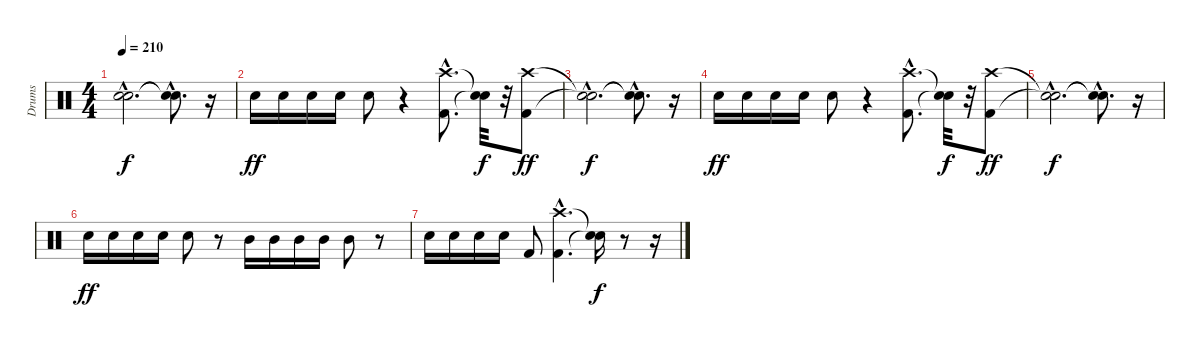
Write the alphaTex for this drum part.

\track ("Drums" "Drums") {instrument percussion}
\staff {score}
\articulation defaults
\ts (4 4)
\tempo 210
\clef neutral
\ks c
("Snare (hit)"{hac t} "Snare (hit)"{hac t}).2{d dy f} ("Snare (hit)"{hac t} "Snare (hit)"{hac t}).8{d} r.16 |
"Snare (hit) 2".16{dy ff} "Snare (hit) 2".16 "Snare (hit) 2".16 "Snare (hit) 2".16 "Snare (hit) 2".8 r.4 ("Kick (hit) 2"{hac} "Crash high (hit)"{hac}).8{d} ("Snare (hit)"{t} "Snare (hit)"{t}).32{dy f} r.32 ("Kick (hit) 2" "Crash high (hit)").8{dy ff} |
("Snare (hit)"{hac t} "Snare (hit)"{hac t}).2{d dy f} ("Snare (hit)"{hac t} "Snare (hit)"{hac t}).8{d} r.16 |
"Snare (hit) 2".16{dy ff} "Snare (hit) 2".16 "Snare (hit) 2".16 "Snare (hit) 2".16 "Snare (hit) 2".8 r.4 ("Kick (hit) 2"{hac} "Crash high (hit)"{hac}).8{d} ("Snare (hit)"{t} "Snare (hit)"{t}).32{dy f} r.32 ("Kick (hit) 2" "Crash high (hit)").8{dy ff} |
("Snare (hit)"{hac t} "Snare (hit)"{hac t}).2{d dy f} ("Snare (hit)"{hac t} "Snare (hit)"{hac t}).8{d} r.16 |
"Snare (hit) 2".16{dy ff} "Snare (hit) 2".16 "Snare (hit) 2".16 "Snare (hit) 2".16 "Snare (hit) 2".8 r.8 "Mid Tom (hit)".16 "Mid Tom (hit)".16 "Mid Tom (hit)".16 "Mid Tom (hit)".16 "Mid Tom (hit)".8 r.8 |
"Snare (hit) 2".16 "Snare (hit) 2".16 "Snare (hit) 2".16 "Snare (hit) 2".16 "Kick (hit) 2".8 ("Kick (hit) 2"{hac} "Crash high (hit)"{hac}).4{d} ("Snare (hit)"{t} "Snare (hit)"{t}).16{dy f} r.8 r.16
